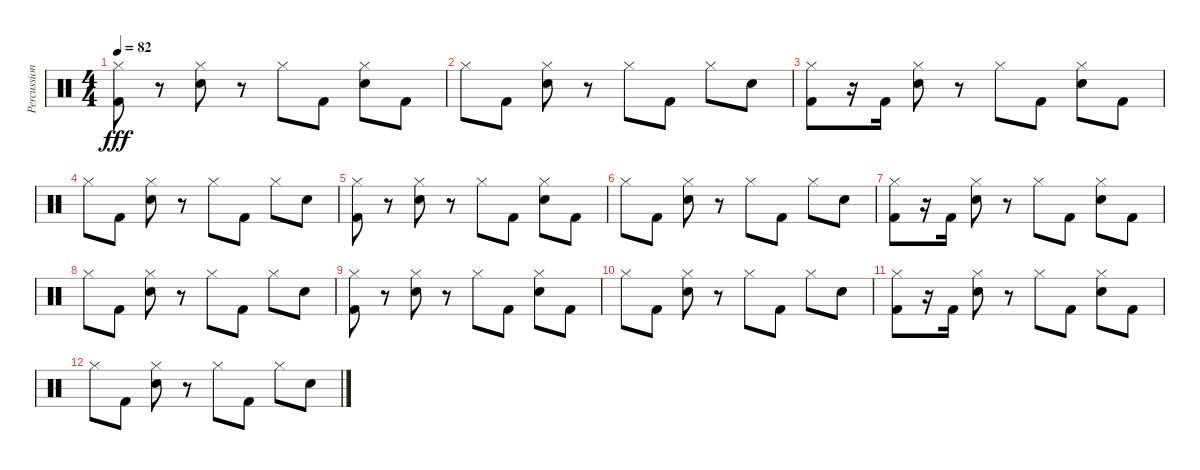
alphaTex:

\track ("Percussion" "Percussion") {instrument percussion}
\staff {score}
\articulation defaults
\ts (4 4)
\tempo 82
\clef neutral
\ks c
("Hi-Hat (closed)" "Kick (hit) 2").8{dy fff} r.8 ("Hi-Hat (closed)" "Electric Snare (hit)").8 r.8 "Hi-Hat (closed)".8 "Kick (hit) 2".8 ("Hi-Hat (closed)" "Electric Snare (hit)").8 "Kick (hit) 2".8 |
"Hi-Hat (closed)".8 "Kick (hit) 2".8 ("Hi-Hat (closed)" "Electric Snare (hit)").8 r.8 "Hi-Hat (closed)".8 "Kick (hit) 2".8 "Hi-Hat (closed)".8 "Electric Snare (hit)".8 |
("Hi-Hat (closed)" "Kick (hit) 2").8 r.16 "Kick (hit) 2".16 ("Hi-Hat (closed)" "Electric Snare (hit)").8 r.8 "Hi-Hat (closed)".8 "Kick (hit) 2".8 ("Hi-Hat (closed)" "Electric Snare (hit)").8 "Kick (hit) 2".8 |
"Hi-Hat (closed)".8 "Kick (hit) 2".8 ("Hi-Hat (closed)" "Electric Snare (hit)").8 r.8 "Hi-Hat (closed)".8 "Kick (hit) 2".8 "Hi-Hat (closed)".8 "Electric Snare (hit)".8 |
("Hi-Hat (closed)" "Kick (hit) 2").8 r.8 ("Hi-Hat (closed)" "Electric Snare (hit)").8 r.8 "Hi-Hat (closed)".8 "Kick (hit) 2".8 ("Hi-Hat (closed)" "Electric Snare (hit)").8 "Kick (hit) 2".8 |
"Hi-Hat (closed)".8 "Kick (hit) 2".8 ("Hi-Hat (closed)" "Electric Snare (hit)").8 r.8 "Hi-Hat (closed)".8 "Kick (hit) 2".8 "Hi-Hat (closed)".8 "Electric Snare (hit)".8 |
("Hi-Hat (closed)" "Kick (hit) 2").8 r.16 "Kick (hit) 2".16 ("Hi-Hat (closed)" "Electric Snare (hit)").8 r.8 "Hi-Hat (closed)".8 "Kick (hit) 2".8 ("Hi-Hat (closed)" "Electric Snare (hit)").8 "Kick (hit) 2".8 |
"Hi-Hat (closed)".8 "Kick (hit) 2".8 ("Hi-Hat (closed)" "Electric Snare (hit)").8 r.8 "Hi-Hat (closed)".8 "Kick (hit) 2".8 "Hi-Hat (closed)".8 "Electric Snare (hit)".8 |
("Hi-Hat (closed)" "Kick (hit) 2").8 r.8 ("Hi-Hat (closed)" "Electric Snare (hit)").8 r.8 "Hi-Hat (closed)".8 "Kick (hit) 2".8 ("Hi-Hat (closed)" "Electric Snare (hit)").8 "Kick (hit) 2".8 |
"Hi-Hat (closed)".8 "Kick (hit) 2".8 ("Hi-Hat (closed)" "Electric Snare (hit)").8 r.8 "Hi-Hat (closed)".8 "Kick (hit) 2".8 "Hi-Hat (closed)".8 "Electric Snare (hit)".8 |
("Hi-Hat (closed)" "Kick (hit) 2").8 r.16 "Kick (hit) 2".16 ("Hi-Hat (closed)" "Electric Snare (hit)").8 r.8 "Hi-Hat (closed)".8 "Kick (hit) 2".8 ("Hi-Hat (closed)" "Electric Snare (hit)").8 "Kick (hit) 2".8 |
"Hi-Hat (closed)".8 "Kick (hit) 2".8 ("Hi-Hat (closed)" "Electric Snare (hit)").8 r.8 "Hi-Hat (closed)".8 "Kick (hit) 2".8 "Hi-Hat (closed)".8 "Electric Snare (hit)".8
